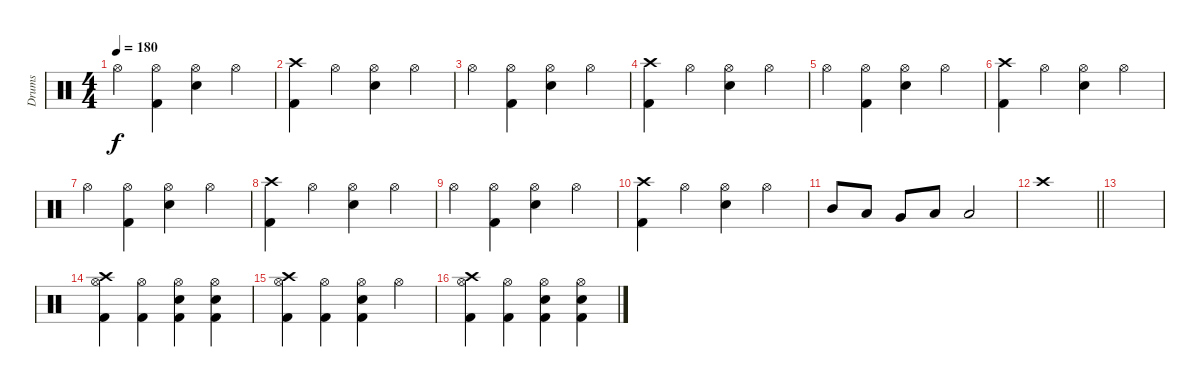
\track ("Drums" "Drums") {instrument percussion}
\staff {score}
\articulation defaults
\ts (4 4)
\tempo 180
\clef neutral
\ks c "Hi-Hat (open)".4{dy f}
("Hi-Hat (open)" "Kick (hit) 2").4 ("Hi-Hat (open)" "Electric Snare (hit)").4 "Hi-Hat (open)".4 |
("Kick (hit) 2" "Crash high (hit)").4 "Hi-Hat (open)".4 ("Hi-Hat (open)" "Electric Snare (hit)").4 "Hi-Hat (open)".4 |
"Hi-Hat (open)".4 ("Hi-Hat (open)" "Kick (hit) 2").4 ("Hi-Hat (open)" "Electric Snare (hit)").4 "Hi-Hat (open)".4 |
("Kick (hit) 2" "Crash high (hit)").4 "Hi-Hat (open)".4 ("Hi-Hat (open)" "Electric Snare (hit)").4 "Hi-Hat (open)".4 |
"Hi-Hat (open)".4 ("Hi-Hat (open)" "Kick (hit) 2").4 ("Hi-Hat (open)" "Electric Snare (hit)").4 "Hi-Hat (open)".4 |
("Kick (hit) 2" "Crash high (hit)").4 "Hi-Hat (open)".4 ("Hi-Hat (open)" "Electric Snare (hit)").4 "Hi-Hat (open)".4 |
"Hi-Hat (open)".4 ("Hi-Hat (open)" "Kick (hit) 2").4 ("Hi-Hat (open)" "Electric Snare (hit)").4 "Hi-Hat (open)".4 |
("Kick (hit) 2" "Crash high (hit)").4 "Hi-Hat (open)".4 ("Hi-Hat (open)" "Electric Snare (hit)").4 "Hi-Hat (open)".4 |
"Hi-Hat (open)".4 ("Hi-Hat (open)" "Kick (hit) 2").4 ("Hi-Hat (open)" "Electric Snare (hit)").4 "Hi-Hat (open)".4 |
("Kick (hit) 2" "Crash high (hit)").4 "Hi-Hat (open)".4 ("Hi-Hat (open)" "Electric Snare (hit)").4 "Hi-Hat (open)".4 |
"Mid Tom (hit)".8 "Low Tom (hit)".8 "Very Low Tom (hit)".8 "Low Floor Tom (hit)".8 "Low Floor Tom (hit)".2 |
\barLineRight lightlight "Crash high (hit)".1
|
|
("Kick (hit) 2" "Crash high (hit)" "Hi-Hat (open)").4 ("Kick (hit) 2" "Hi-Hat (open)").4 ("Electric Snare (hit)" "Kick (hit) 2" "Hi-Hat (open)").4 ("Electric Snare (hit)" "Kick (hit) 2" "Hi-Hat (open)").4 |
("Kick (hit) 2" "Crash high (hit)" "Hi-Hat (open)").4 ("Kick (hit) 2" "Hi-Hat (open)").4 ("Electric Snare (hit)" "Kick (hit) 2" "Hi-Hat (open)").4 "Hi-Hat (open)".4 |
("Kick (hit) 2" "Crash high (hit)" "Hi-Hat (open)").4 ("Kick (hit) 2" "Hi-Hat (open)").4 ("Electric Snare (hit)" "Kick (hit) 2" "Hi-Hat (open)").4 ("Electric Snare (hit)" "Kick (hit) 2" "Hi-Hat (open)").4
